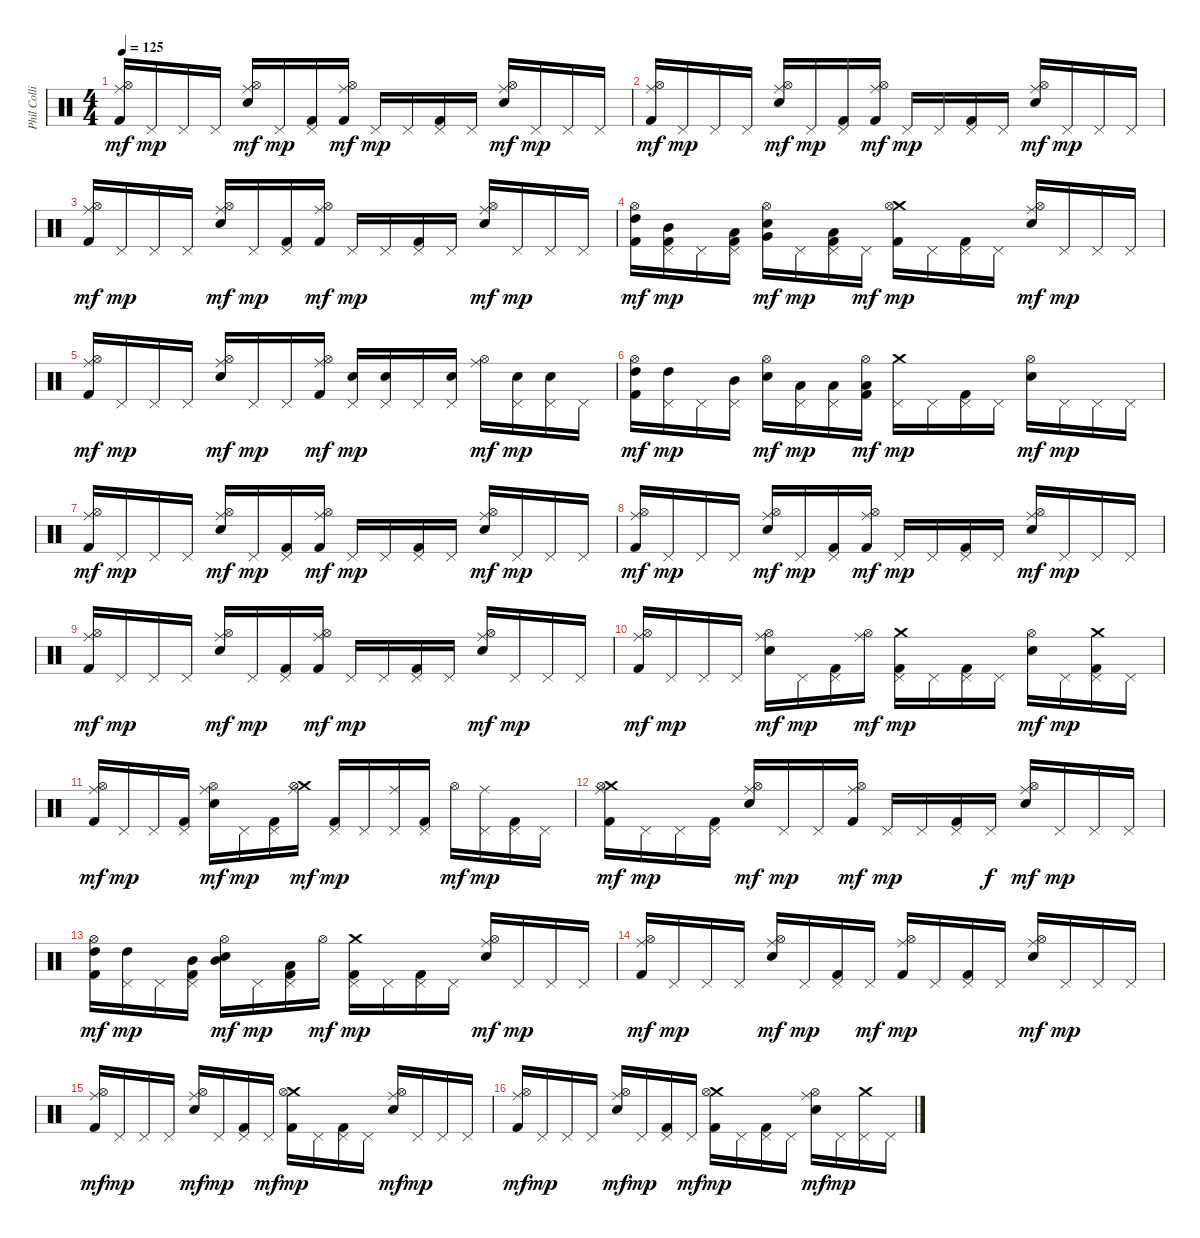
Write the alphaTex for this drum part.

\track ("Phil Collins (drums)" "Phil Colli") {instrument percussion}
\staff {score}
\articulation defaults
\ts (4 4)
\tempo 125
\clef neutral
\ks c
("Ride (middle)" "Hi-Hat (open)" "Kick (hit) 2").16{dy mf} "Pedal Hi-Hat (hit)".16{dy mp} "Pedal Hi-Hat (hit)".16 "Pedal Hi-Hat (hit)".16 ("Ride (middle)" "Hi-Hat (open)" "Electric Snare (hit)").16{dy mf} "Pedal Hi-Hat (hit)".16{dy mp} ("Pedal Hi-Hat (hit)" "Kick (hit) 2").16 ("Ride (middle)" "Hi-Hat (open)" "Kick (hit) 2").16{dy mf} "Pedal Hi-Hat (hit)".16{dy mp} "Pedal Hi-Hat (hit)".16 ("Pedal Hi-Hat (hit)" "Kick (hit) 2").16 "Pedal Hi-Hat (hit)".16 ("Ride (middle)" "Hi-Hat (open)" "Electric Snare (hit)").16{dy mf} "Pedal Hi-Hat (hit)".16{dy mp} "Pedal Hi-Hat (hit)".16 "Pedal Hi-Hat (hit)".16 |
("Ride (middle)" "Hi-Hat (open)" "Kick (hit) 2").16{dy mf} "Pedal Hi-Hat (hit)".16{dy mp} "Pedal Hi-Hat (hit)".16 "Pedal Hi-Hat (hit)".16 ("Ride (middle)" "Hi-Hat (open)" "Electric Snare (hit)").16{dy mf} "Pedal Hi-Hat (hit)".16{dy mp} ("Pedal Hi-Hat (hit)" "Kick (hit) 2").16 ("Ride (middle)" "Hi-Hat (open)" "Kick (hit) 2").16{dy mf} "Pedal Hi-Hat (hit)".16{dy mp} "Pedal Hi-Hat (hit)".16 ("Pedal Hi-Hat (hit)" "Kick (hit) 2").16 "Pedal Hi-Hat (hit)".16 ("Ride (middle)" "Hi-Hat (open)" "Electric Snare (hit)").16{dy mf} "Pedal Hi-Hat (hit)".16{dy mp} "Pedal Hi-Hat (hit)".16 "Pedal Hi-Hat (hit)".16 |
("Ride (middle)" "Hi-Hat (open)" "Kick (hit) 2").16{dy mf} "Pedal Hi-Hat (hit)".16{dy mp} "Pedal Hi-Hat (hit)".16 "Pedal Hi-Hat (hit)".16 ("Ride (middle)" "Hi-Hat (open)" "Electric Snare (hit)").16{dy mf} "Pedal Hi-Hat (hit)".16{dy mp} ("Pedal Hi-Hat (hit)" "Kick (hit) 2").16 ("Ride (middle)" "Hi-Hat (open)" "Kick (hit) 2").16{dy mf} "Pedal Hi-Hat (hit)".16{dy mp} "Pedal Hi-Hat (hit)".16 ("Pedal Hi-Hat (hit)" "Kick (hit) 2").16 "Pedal Hi-Hat (hit)".16 ("Ride (middle)" "Hi-Hat (open)" "Electric Snare (hit)").16{dy mf} "Pedal Hi-Hat (hit)".16{dy mp} "Pedal Hi-Hat (hit)".16 "Pedal Hi-Hat (hit)".16 |
("High Tom (hit)" "Hi-Hat (open)" "Kick (hit) 2").16{dy mf} ("Mid Tom (hit)" "Pedal Hi-Hat (hit)" "Kick (hit) 2").16{dy mp} "Pedal Hi-Hat (hit)".16 ("Low Tom (hit)" "Pedal Hi-Hat (hit)" "Kick (hit) 2").16 ("Very Low Tom (hit)" "Hi-Hat (open)" "Electric Snare (hit)").16{dy mf} "Pedal Hi-Hat (hit)".16{dy mp} ("Low Floor Tom (hit)" "Pedal Hi-Hat (hit)" "Kick (hit) 2").16 "Pedal Hi-Hat (hit)".16{dy mf} ("Crash medium (hit)" "Hi-Hat (open)" "Kick (hit) 2").16{dy mp} "Pedal Hi-Hat (hit)".16 ("Pedal Hi-Hat (hit)" "Kick (hit) 2").16 "Pedal Hi-Hat (hit)".16 ("Ride (middle)" "Hi-Hat (open)" "Electric Snare (hit)").16{dy mf} "Pedal Hi-Hat (hit)".16{dy mp} "Pedal Hi-Hat (hit)".16 "Pedal Hi-Hat (hit)".16 |
("Ride (middle)" "Hi-Hat (open)" "Kick (hit) 2").16{dy mf} "Pedal Hi-Hat (hit)".16{dy mp} "Pedal Hi-Hat (hit)".16 "Pedal Hi-Hat (hit)".16 ("Ride (middle)" "Hi-Hat (open)" "Electric Snare (hit)").16{dy mf} "Pedal Hi-Hat (hit)".16{dy mp} "Pedal Hi-Hat (hit)".16 ("Ride (middle)" "Hi-Hat (open)" "Kick (hit) 2").16{dy mf} ("Pedal Hi-Hat (hit)" "Electric Snare (hit)").16{dy mp} ("Pedal Hi-Hat (hit)" "Electric Snare (hit)").16 "Pedal Hi-Hat (hit)".16 ("Pedal Hi-Hat (hit)" "Electric Snare (hit)").16 ("Ride (middle)" "Hi-Hat (open)").16{dy mf} ("Pedal Hi-Hat (hit)" "Electric Snare (hit)").16{dy mp} ("Pedal Hi-Hat (hit)" "Electric Snare (hit)").16 "Pedal Hi-Hat (hit)".16 |
("High Tom (hit)" "Hi-Hat (open)" "Kick (hit) 2").16{dy mf} ("High Tom (hit)" "Pedal Hi-Hat (hit)").16{dy mp} "Pedal Hi-Hat (hit)".16 ("Mid Tom (hit)" "Pedal Hi-Hat (hit)").16 ("Hi-Hat (open)" "Electric Snare (hit)").16{dy mf} ("Low Tom (hit)" "Pedal Hi-Hat (hit)").16{dy mp} ("Low Tom (hit)" "Pedal Hi-Hat (hit)").16 ("Low Tom (hit)" "Hi-Hat (open)" "Kick (hit) 2").16{dy mf} ("Crash medium (hit)" "Pedal Hi-Hat (hit)").16{dy mp} "Pedal Hi-Hat (hit)".16 ("Pedal Hi-Hat (hit)" "Kick (hit) 2").16 "Pedal Hi-Hat (hit)".16 ("Hi-Hat (open)" "Electric Snare (hit)").16{dy mf} "Pedal Hi-Hat (hit)".16{dy mp} "Pedal Hi-Hat (hit)".16 "Pedal Hi-Hat (hit)".16 |
("Ride (middle)" "Hi-Hat (open)" "Kick (hit) 2").16{dy mf} "Pedal Hi-Hat (hit)".16{dy mp} "Pedal Hi-Hat (hit)".16 "Pedal Hi-Hat (hit)".16 ("Ride (middle)" "Hi-Hat (open)" "Electric Snare (hit)").16{dy mf} "Pedal Hi-Hat (hit)".16{dy mp} ("Pedal Hi-Hat (hit)" "Kick (hit) 2").16 ("Ride (middle)" "Hi-Hat (open)" "Kick (hit) 2").16{dy mf} "Pedal Hi-Hat (hit)".16{dy mp} "Pedal Hi-Hat (hit)".16 ("Pedal Hi-Hat (hit)" "Kick (hit) 2").16 "Pedal Hi-Hat (hit)".16 ("Ride (middle)" "Hi-Hat (open)" "Electric Snare (hit)").16{dy mf} "Pedal Hi-Hat (hit)".16{dy mp} "Pedal Hi-Hat (hit)".16 "Pedal Hi-Hat (hit)".16 |
("Ride (middle)" "Hi-Hat (open)" "Kick (hit) 2").16{dy mf} "Pedal Hi-Hat (hit)".16{dy mp} "Pedal Hi-Hat (hit)".16 "Pedal Hi-Hat (hit)".16 ("Ride (middle)" "Hi-Hat (open)" "Electric Snare (hit)").16{dy mf} "Pedal Hi-Hat (hit)".16{dy mp} ("Pedal Hi-Hat (hit)" "Kick (hit) 2").16 ("Ride (middle)" "Hi-Hat (open)" "Kick (hit) 2").16{dy mf} "Pedal Hi-Hat (hit)".16{dy mp} "Pedal Hi-Hat (hit)".16 ("Pedal Hi-Hat (hit)" "Kick (hit) 2").16 "Pedal Hi-Hat (hit)".16 ("Ride (middle)" "Hi-Hat (open)" "Electric Snare (hit)").16{dy mf} "Pedal Hi-Hat (hit)".16{dy mp} "Pedal Hi-Hat (hit)".16 "Pedal Hi-Hat (hit)".16 |
("Ride (middle)" "Hi-Hat (open)" "Kick (hit) 2").16{dy mf} "Pedal Hi-Hat (hit)".16{dy mp} "Pedal Hi-Hat (hit)".16 "Pedal Hi-Hat (hit)".16 ("Ride (middle)" "Hi-Hat (open)" "Electric Snare (hit)").16{dy mf} "Pedal Hi-Hat (hit)".16{dy mp} ("Pedal Hi-Hat (hit)" "Kick (hit) 2").16 ("Ride (middle)" "Hi-Hat (open)" "Kick (hit) 2").16{dy mf} "Pedal Hi-Hat (hit)".16{dy mp} "Pedal Hi-Hat (hit)".16 ("Pedal Hi-Hat (hit)" "Kick (hit) 2").16 "Pedal Hi-Hat (hit)".16 ("Ride (middle)" "Hi-Hat (open)" "Electric Snare (hit)").16{dy mf} "Pedal Hi-Hat (hit)".16{dy mp} "Pedal Hi-Hat (hit)".16 "Pedal Hi-Hat (hit)".16 |
("Ride (middle)" "Hi-Hat (open)" "Kick (hit) 2").16{dy mf} "Pedal Hi-Hat (hit)".16{dy mp} "Pedal Hi-Hat (hit)".16 "Pedal Hi-Hat (hit)".16 ("Ride (middle)" "Hi-Hat (open)" "Electric Snare (hit)").16{dy mf} "Pedal Hi-Hat (hit)".16{dy mp} ("Pedal Hi-Hat (hit)" "Kick (hit) 2").16 ("Ride (middle)" "Hi-Hat (open)").16{dy mf} ("Crash medium (hit)" "Pedal Hi-Hat (hit)" "Kick (hit) 2").16{dy mp} "Pedal Hi-Hat (hit)".16 ("Pedal Hi-Hat (hit)" "Kick (hit) 2").16 "Pedal Hi-Hat (hit)".16 ("Hi-Hat (open)" "Electric Snare (hit)").16{dy mf} "Pedal Hi-Hat (hit)".16{dy mp} ("Crash medium (hit)" "Pedal Hi-Hat (hit)" "Kick (hit) 2").16 "Pedal Hi-Hat (hit)".16 |
("Ride (middle)" "Hi-Hat (open)" "Kick (hit) 2").16{dy mf} "Pedal Hi-Hat (hit)".16{dy mp} "Pedal Hi-Hat (hit)".16 ("Pedal Hi-Hat (hit)" "Kick (hit) 2").16 ("Ride (middle)" "Hi-Hat (open)" "Electric Snare (hit)").16{dy mf} "Pedal Hi-Hat (hit)".16{dy mp} ("Pedal Hi-Hat (hit)" "Kick (hit) 2").16 ("Crash medium (hit)" "Ride (middle)" "Hi-Hat (open)").16{dy mf} ("Pedal Hi-Hat (hit)" "Kick (hit) 2").16{dy mp} "Pedal Hi-Hat (hit)".16 ("Ride (middle)" "Pedal Hi-Hat (hit)").16 ("Pedal Hi-Hat (hit)" "Kick (hit) 2").16 "Hi-Hat (open)".16{dy mf} ("Ride (middle)" "Pedal Hi-Hat (hit)").16{dy mp} ("Pedal Hi-Hat (hit)" "Kick (hit) 2").16 "Pedal Hi-Hat (hit)".16 |
("Crash medium (hit)" "Ride (middle)" "Hi-Hat (open)" "Kick (hit) 2").16{dy mf} "Pedal Hi-Hat (hit)".16{dy mp} "Pedal Hi-Hat (hit)".16 ("Pedal Hi-Hat (hit)" "Kick (hit) 2").16 ("Ride (middle)" "Hi-Hat (open)" "Electric Snare (hit)").16{dy mf} "Pedal Hi-Hat (hit)".16{dy mp} "Pedal Hi-Hat (hit)".16 ("Ride (middle)" "Hi-Hat (open)" "Kick (hit) 2").16{dy mf} "Pedal Hi-Hat (hit)".16{dy mp} "Pedal Hi-Hat (hit)".16 ("Pedal Hi-Hat (hit)" "Kick (hit) 2").16 "Pedal Hi-Hat (hit)".16{dy f} ("Ride (middle)" "Hi-Hat (open)" "Electric Snare (hit)").16{dy mf} "Pedal Hi-Hat (hit)".16{dy mp} "Pedal Hi-Hat (hit)".16 "Pedal Hi-Hat (hit)".16 |
("High Tom (hit)" "Hi-Hat (open)" "Kick (hit) 2").16{dy mf} ("High Tom (hit)" "Pedal Hi-Hat (hit)").16{dy mp} "Pedal Hi-Hat (hit)".16 ("Mid Tom (hit)" "Pedal Hi-Hat (hit)" "Kick (hit) 2").16 ("Mid Tom (hit)" "Hi-Hat (open)" "Electric Snare (hit)").16{dy mf} "Pedal Hi-Hat (hit)".16{dy mp} ("Low Tom (hit)" "Pedal Hi-Hat (hit)" "Kick (hit) 2").16 "Hi-Hat (open)".16{dy mf} ("Crash medium (hit)" "Pedal Hi-Hat (hit)" "Kick (hit) 2").16{dy mp} "Pedal Hi-Hat (hit)".16 ("Pedal Hi-Hat (hit)" "Kick (hit) 2").16 "Pedal Hi-Hat (hit)".16 ("Ride (middle)" "Hi-Hat (open)" "Electric Snare (hit)").16{dy mf} "Pedal Hi-Hat (hit)".16{dy mp} "Pedal Hi-Hat (hit)".16 "Pedal Hi-Hat (hit)".16 |
("Ride (middle)" "Hi-Hat (open)" "Kick (hit) 2").16{dy mf} "Pedal Hi-Hat (hit)".16{dy mp} "Pedal Hi-Hat (hit)".16 "Pedal Hi-Hat (hit)".16 ("Ride (middle)" "Hi-Hat (open)" "Electric Snare (hit)").16{dy mf} "Pedal Hi-Hat (hit)".16{dy mp} ("Pedal Hi-Hat (hit)" "Kick (hit) 2").16 "Pedal Hi-Hat (hit)".16{dy mf} ("Ride (middle)" "Hi-Hat (open)" "Kick (hit) 2").16{dy mp} "Pedal Hi-Hat (hit)".16 ("Pedal Hi-Hat (hit)" "Kick (hit) 2").16 "Pedal Hi-Hat (hit)".16 ("Ride (middle)" "Hi-Hat (open)" "Electric Snare (hit)").16{dy mf} "Pedal Hi-Hat (hit)".16{dy mp} "Pedal Hi-Hat (hit)".16 "Pedal Hi-Hat (hit)".16 |
("Ride (middle)" "Hi-Hat (open)" "Kick (hit) 2").16{dy mf} "Pedal Hi-Hat (hit)".16{dy mp} "Pedal Hi-Hat (hit)".16 "Pedal Hi-Hat (hit)".16 ("Ride (middle)" "Hi-Hat (open)" "Electric Snare (hit)").16{dy mf} "Pedal Hi-Hat (hit)".16{dy mp} ("Pedal Hi-Hat (hit)" "Kick (hit) 2").16 "Pedal Hi-Hat (hit)".16{dy mf} ("Crash medium (hit)" "Hi-Hat (open)" "Kick (hit) 2").16{dy mp} "Pedal Hi-Hat (hit)".16 ("Pedal Hi-Hat (hit)" "Kick (hit) 2").16 "Pedal Hi-Hat (hit)".16 ("Ride (middle)" "Hi-Hat (open)" "Electric Snare (hit)").16{dy mf} "Pedal Hi-Hat (hit)".16{dy mp} "Pedal Hi-Hat (hit)".16 "Pedal Hi-Hat (hit)".16 |
("Ride (middle)" "Hi-Hat (open)" "Kick (hit) 2").16{dy mf} "Pedal Hi-Hat (hit)".16{dy mp} "Pedal Hi-Hat (hit)".16 "Pedal Hi-Hat (hit)".16 ("Ride (middle)" "Hi-Hat (open)" "Electric Snare (hit)").16{dy mf} "Pedal Hi-Hat (hit)".16{dy mp} ("Pedal Hi-Hat (hit)" "Kick (hit) 2").16 "Pedal Hi-Hat (hit)".16{dy mf} ("Crash medium (hit)" "Hi-Hat (open)" "Kick (hit) 2").16{dy mp} "Pedal Hi-Hat (hit)".16 ("Pedal Hi-Hat (hit)" "Kick (hit) 2").16 "Pedal Hi-Hat (hit)".16 ("Ride (middle)" "Hi-Hat (open)" "Electric Snare (hit)").16{dy mf} "Pedal Hi-Hat (hit)".16{dy mp} ("Crash medium (hit)" "Pedal Hi-Hat (hit)").16 "Pedal Hi-Hat (hit)".16
